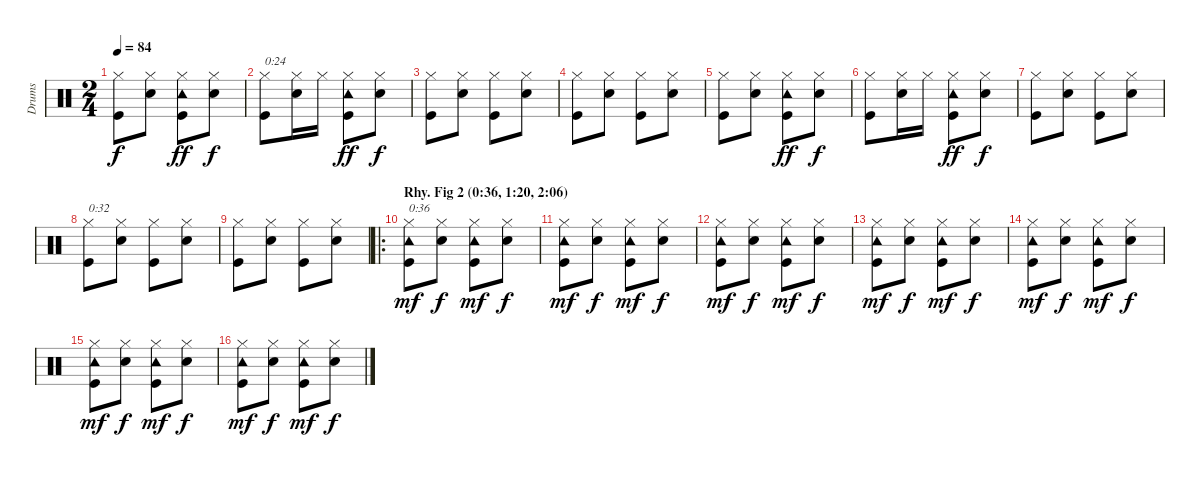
\track ("Drums" "Drums") {instrument percussion}
\staff {score}
\articulation defaults
\ts (2 4)
\tempo 84
\clef neutral
\ks c
("Hi-Hat (closed)" "Kick (hit)").8{dy f} ("Hi-Hat (closed)" "Electric Snare (hit)").8 ("Tambourine (hit)" "Hi-Hat (closed)" "Kick (hit)").8{dy ff} ("Hi-Hat (closed)" "Electric Snare (hit)").8{dy f} |
("Hi-Hat (closed)" "Kick (hit)").8{txt "0:24"} ("Hi-Hat (closed)" "Electric Snare (hit)").16 "Hi-Hat (closed)".16 ("Tambourine (hit)" "Hi-Hat (closed)" "Kick (hit)").8{dy ff} ("Hi-Hat (closed)" "Electric Snare (hit)").8{dy f} |
("Hi-Hat (closed)" "Kick (hit)").8 ("Hi-Hat (closed)" "Electric Snare (hit)").8 ("Hi-Hat (closed)" "Kick (hit)").8 ("Hi-Hat (closed)" "Electric Snare (hit)").8 |
("Hi-Hat (closed)" "Kick (hit)").8 ("Hi-Hat (closed)" "Electric Snare (hit)").8 ("Hi-Hat (closed)" "Kick (hit)").8 ("Hi-Hat (closed)" "Electric Snare (hit)").8 |
("Hi-Hat (closed)" "Kick (hit)").8 ("Hi-Hat (closed)" "Electric Snare (hit)").8 ("Tambourine (hit)" "Hi-Hat (closed)" "Kick (hit)").8{dy ff} ("Hi-Hat (closed)" "Electric Snare (hit)").8{dy f} |
("Hi-Hat (closed)" "Kick (hit)").8 ("Hi-Hat (closed)" "Electric Snare (hit)").16 "Hi-Hat (closed)".16 ("Tambourine (hit)" "Hi-Hat (closed)" "Kick (hit)").8{dy ff} ("Hi-Hat (closed)" "Electric Snare (hit)").8{dy f} |
("Hi-Hat (closed)" "Kick (hit)").8 ("Hi-Hat (closed)" "Electric Snare (hit)").8 ("Hi-Hat (closed)" "Kick (hit)").8 ("Hi-Hat (closed)" "Electric Snare (hit)").8 |
("Hi-Hat (closed)" "Kick (hit)").8{txt "0:32"} ("Hi-Hat (closed)" "Electric Snare (hit)").8 ("Hi-Hat (closed)" "Kick (hit)").8 ("Hi-Hat (closed)" "Electric Snare (hit)").8 |
("Hi-Hat (closed)" "Kick (hit)").8 ("Hi-Hat (closed)" "Electric Snare (hit)").8 ("Hi-Hat (closed)" "Kick (hit)").8 ("Hi-Hat (closed)" "Electric Snare (hit)").8 |
\ro
\section ("" "Rhy. Fig 2 (0:36, 1:20, 2:06)")
("Tambourine (hit)" "Hi-Hat (closed)" "Kick (hit)").8{txt "0:36" dy mf} ("Hi-Hat (closed)" "Electric Snare (hit)").8{dy f} ("Tambourine (hit)" "Hi-Hat (closed)" "Kick (hit)").8{dy mf} ("Hi-Hat (closed)" "Electric Snare (hit)").8{dy f} |
("Tambourine (hit)" "Hi-Hat (closed)" "Kick (hit)").8{dy mf} ("Hi-Hat (closed)" "Electric Snare (hit)").8{dy f} ("Tambourine (hit)" "Hi-Hat (closed)" "Kick (hit)").8{dy mf} ("Hi-Hat (closed)" "Electric Snare (hit)").8{dy f} |
("Tambourine (hit)" "Hi-Hat (closed)" "Kick (hit)").8{dy mf} ("Hi-Hat (closed)" "Electric Snare (hit)").8{dy f} ("Tambourine (hit)" "Hi-Hat (closed)" "Kick (hit)").8{dy mf} ("Hi-Hat (closed)" "Electric Snare (hit)").8{dy f} |
("Tambourine (hit)" "Hi-Hat (closed)" "Kick (hit)").8{dy mf} ("Hi-Hat (closed)" "Electric Snare (hit)").8{dy f} ("Tambourine (hit)" "Hi-Hat (closed)" "Kick (hit)").8{dy mf} ("Hi-Hat (closed)" "Electric Snare (hit)").8{dy f} |
("Tambourine (hit)" "Hi-Hat (closed)" "Kick (hit)").8{dy mf} ("Hi-Hat (closed)" "Electric Snare (hit)").8{dy f} ("Tambourine (hit)" "Hi-Hat (closed)" "Kick (hit)").8{dy mf} ("Hi-Hat (closed)" "Electric Snare (hit)").8{dy f} |
("Tambourine (hit)" "Hi-Hat (closed)" "Kick (hit)").8{dy mf} ("Hi-Hat (closed)" "Electric Snare (hit)").8{dy f} ("Tambourine (hit)" "Hi-Hat (closed)" "Kick (hit)").8{dy mf} ("Hi-Hat (closed)" "Electric Snare (hit)").8{dy f} |
("Tambourine (hit)" "Hi-Hat (closed)" "Kick (hit)").8{dy mf} ("Hi-Hat (closed)" "Electric Snare (hit)").8{dy f} ("Tambourine (hit)" "Hi-Hat (closed)" "Kick (hit)").8{dy mf} ("Hi-Hat (closed)" "Electric Snare (hit)").8{dy f}
